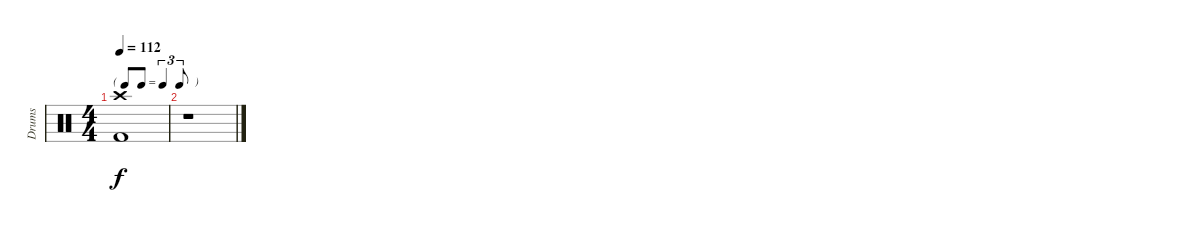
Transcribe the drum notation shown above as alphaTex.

\track ("Drums" "Drums") {instrument percussion}
\staff {score}
\articulation defaults
\ts (4 4)
\tf triplet8th
\tempo 112
\clef neutral
\ks c
("Crash high (hit)" "Kick (hit) 2").1{dy f} |
r.1
